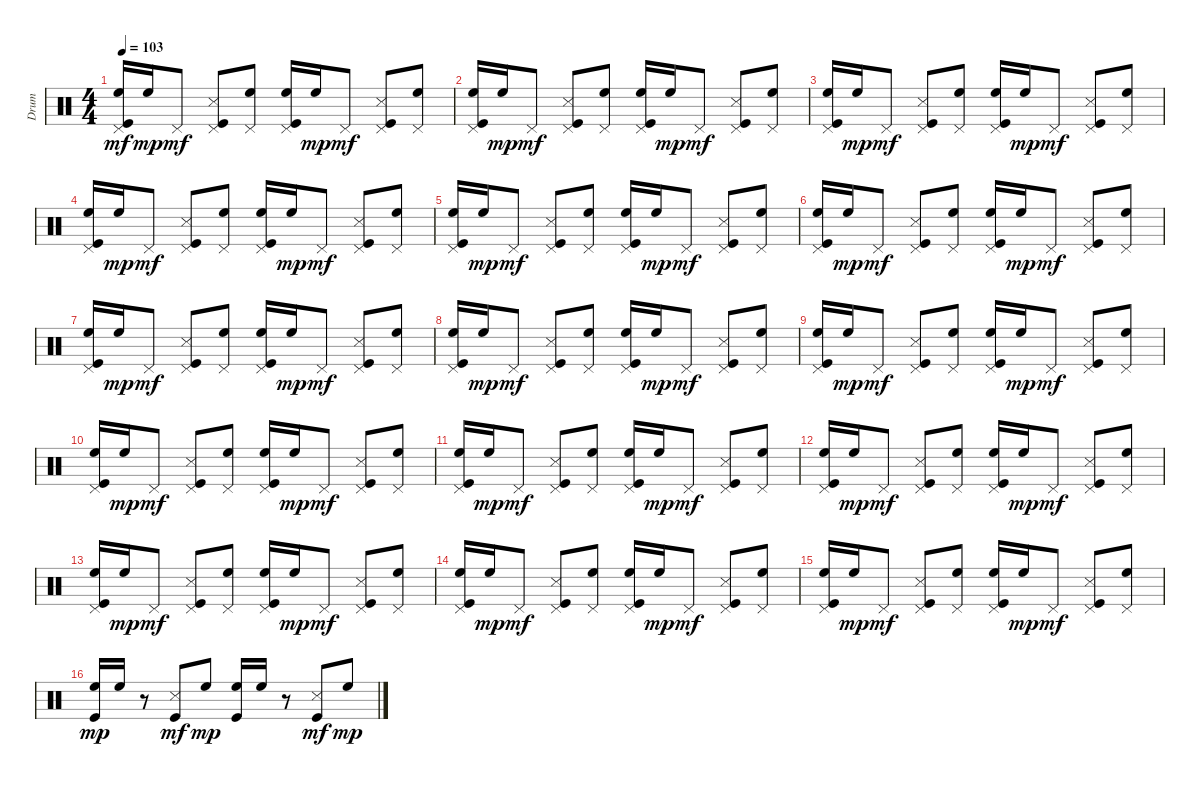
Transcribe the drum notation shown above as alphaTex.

\track ("Drum" "Drum") {instrument percussion}
\staff {score}
\articulation defaults
\ts (4 4)
\tempo 103
\clef neutral
\ks c
("Kick (hit)" "High Floor Tom (hit)" "Pedal Hi-Hat (hit)").16{dy mf} "High Floor Tom (hit)".16{dy mp} "Pedal Hi-Hat (hit)".8{dy mf} ("Kick (hit)" "Snare (side stick) 3" "Pedal Hi-Hat (hit)").8 ("High Floor Tom (hit)" "Pedal Hi-Hat (hit)").8 ("Kick (hit)" "High Floor Tom (hit)" "Pedal Hi-Hat (hit)").16 "High Floor Tom (hit)".16{dy mp} "Pedal Hi-Hat (hit)".8{dy mf} ("Kick (hit)" "Snare (side stick) 3" "Pedal Hi-Hat (hit)").8 ("High Floor Tom (hit)" "Pedal Hi-Hat (hit)").8 |
("Kick (hit)" "High Floor Tom (hit)" "Pedal Hi-Hat (hit)").16 "High Floor Tom (hit)".16{dy mp} "Pedal Hi-Hat (hit)".8{dy mf} ("Kick (hit)" "Snare (side stick) 3" "Pedal Hi-Hat (hit)").8 ("High Floor Tom (hit)" "Pedal Hi-Hat (hit)").8 ("Kick (hit)" "High Floor Tom (hit)" "Pedal Hi-Hat (hit)").16 "High Floor Tom (hit)".16{dy mp} "Pedal Hi-Hat (hit)".8{dy mf} ("Kick (hit)" "Snare (side stick) 3" "Pedal Hi-Hat (hit)").8 ("High Floor Tom (hit)" "Pedal Hi-Hat (hit)").8 |
("Kick (hit)" "High Floor Tom (hit)" "Pedal Hi-Hat (hit)").16 "High Floor Tom (hit)".16{dy mp} "Pedal Hi-Hat (hit)".8{dy mf} ("Kick (hit)" "Snare (side stick) 3" "Pedal Hi-Hat (hit)").8 ("High Floor Tom (hit)" "Pedal Hi-Hat (hit)").8 ("Kick (hit)" "High Floor Tom (hit)" "Pedal Hi-Hat (hit)").16 "High Floor Tom (hit)".16{dy mp} "Pedal Hi-Hat (hit)".8{dy mf} ("Kick (hit)" "Snare (side stick) 3" "Pedal Hi-Hat (hit)").8 ("High Floor Tom (hit)" "Pedal Hi-Hat (hit)").8 |
("Kick (hit)" "High Floor Tom (hit)" "Pedal Hi-Hat (hit)").16 "High Floor Tom (hit)".16{dy mp} "Pedal Hi-Hat (hit)".8{dy mf} ("Kick (hit)" "Snare (side stick) 3" "Pedal Hi-Hat (hit)").8 ("High Floor Tom (hit)" "Pedal Hi-Hat (hit)").8 ("Kick (hit)" "High Floor Tom (hit)" "Pedal Hi-Hat (hit)").16 "High Floor Tom (hit)".16{dy mp} "Pedal Hi-Hat (hit)".8{dy mf} ("Kick (hit)" "Snare (side stick) 3" "Pedal Hi-Hat (hit)").8 ("High Floor Tom (hit)" "Pedal Hi-Hat (hit)").8 |
("Kick (hit)" "High Floor Tom (hit)" "Pedal Hi-Hat (hit)").16 "High Floor Tom (hit)".16{dy mp} "Pedal Hi-Hat (hit)".8{dy mf} ("Kick (hit)" "Snare (side stick) 3" "Pedal Hi-Hat (hit)").8 ("High Floor Tom (hit)" "Pedal Hi-Hat (hit)").8 ("Kick (hit)" "High Floor Tom (hit)" "Pedal Hi-Hat (hit)").16 "High Floor Tom (hit)".16{dy mp} "Pedal Hi-Hat (hit)".8{dy mf} ("Kick (hit)" "Snare (side stick) 3" "Pedal Hi-Hat (hit)").8 ("High Floor Tom (hit)" "Pedal Hi-Hat (hit)").8 |
("Kick (hit)" "High Floor Tom (hit)" "Pedal Hi-Hat (hit)").16 "High Floor Tom (hit)".16{dy mp} "Pedal Hi-Hat (hit)".8{dy mf} ("Kick (hit)" "Snare (side stick) 3" "Pedal Hi-Hat (hit)").8 ("High Floor Tom (hit)" "Pedal Hi-Hat (hit)").8 ("Kick (hit)" "High Floor Tom (hit)" "Pedal Hi-Hat (hit)").16 "High Floor Tom (hit)".16{dy mp} "Pedal Hi-Hat (hit)".8{dy mf} ("Kick (hit)" "Snare (side stick) 3" "Pedal Hi-Hat (hit)").8 ("High Floor Tom (hit)" "Pedal Hi-Hat (hit)").8 |
("Kick (hit)" "High Floor Tom (hit)" "Pedal Hi-Hat (hit)").16 "High Floor Tom (hit)".16{dy mp} "Pedal Hi-Hat (hit)".8{dy mf} ("Kick (hit)" "Snare (side stick) 3" "Pedal Hi-Hat (hit)").8 ("High Floor Tom (hit)" "Pedal Hi-Hat (hit)").8 ("Kick (hit)" "High Floor Tom (hit)" "Pedal Hi-Hat (hit)").16 "High Floor Tom (hit)".16{dy mp} "Pedal Hi-Hat (hit)".8{dy mf} ("Kick (hit)" "Snare (side stick) 3" "Pedal Hi-Hat (hit)").8 ("High Floor Tom (hit)" "Pedal Hi-Hat (hit)").8 |
("Kick (hit)" "High Floor Tom (hit)" "Pedal Hi-Hat (hit)").16 "High Floor Tom (hit)".16{dy mp} "Pedal Hi-Hat (hit)".8{dy mf} ("Kick (hit)" "Snare (side stick) 3" "Pedal Hi-Hat (hit)").8 ("High Floor Tom (hit)" "Pedal Hi-Hat (hit)").8 ("Kick (hit)" "High Floor Tom (hit)" "Pedal Hi-Hat (hit)").16 "High Floor Tom (hit)".16{dy mp} "Pedal Hi-Hat (hit)".8{dy mf} ("Kick (hit)" "Snare (side stick) 3" "Pedal Hi-Hat (hit)").8 ("High Floor Tom (hit)" "Pedal Hi-Hat (hit)").8 |
("Kick (hit)" "High Floor Tom (hit)" "Pedal Hi-Hat (hit)").16 "High Floor Tom (hit)".16{dy mp} "Pedal Hi-Hat (hit)".8{dy mf} ("Kick (hit)" "Snare (side stick) 3" "Pedal Hi-Hat (hit)").8 ("High Floor Tom (hit)" "Pedal Hi-Hat (hit)").8 ("Kick (hit)" "High Floor Tom (hit)" "Pedal Hi-Hat (hit)").16 "High Floor Tom (hit)".16{dy mp} "Pedal Hi-Hat (hit)".8{dy mf} ("Kick (hit)" "Snare (side stick) 3" "Pedal Hi-Hat (hit)").8 ("High Floor Tom (hit)" "Pedal Hi-Hat (hit)").8 |
("Kick (hit)" "High Floor Tom (hit)" "Pedal Hi-Hat (hit)").16 "High Floor Tom (hit)".16{dy mp} "Pedal Hi-Hat (hit)".8{dy mf} ("Kick (hit)" "Snare (side stick) 3" "Pedal Hi-Hat (hit)").8 ("High Floor Tom (hit)" "Pedal Hi-Hat (hit)").8 ("Kick (hit)" "High Floor Tom (hit)" "Pedal Hi-Hat (hit)").16 "High Floor Tom (hit)".16{dy mp} "Pedal Hi-Hat (hit)".8{dy mf} ("Kick (hit)" "Snare (side stick) 3" "Pedal Hi-Hat (hit)").8 ("High Floor Tom (hit)" "Pedal Hi-Hat (hit)").8 |
("Kick (hit)" "High Floor Tom (hit)" "Pedal Hi-Hat (hit)").16 "High Floor Tom (hit)".16{dy mp} "Pedal Hi-Hat (hit)".8{dy mf} ("Kick (hit)" "Snare (side stick) 3" "Pedal Hi-Hat (hit)").8 ("High Floor Tom (hit)" "Pedal Hi-Hat (hit)").8 ("Kick (hit)" "High Floor Tom (hit)" "Pedal Hi-Hat (hit)").16 "High Floor Tom (hit)".16{dy mp} "Pedal Hi-Hat (hit)".8{dy mf} ("Kick (hit)" "Snare (side stick) 3" "Pedal Hi-Hat (hit)").8 ("High Floor Tom (hit)" "Pedal Hi-Hat (hit)").8 |
("Kick (hit)" "High Floor Tom (hit)" "Pedal Hi-Hat (hit)").16 "High Floor Tom (hit)".16{dy mp} "Pedal Hi-Hat (hit)".8{dy mf} ("Kick (hit)" "Snare (side stick) 3" "Pedal Hi-Hat (hit)").8 ("High Floor Tom (hit)" "Pedal Hi-Hat (hit)").8 ("Kick (hit)" "High Floor Tom (hit)" "Pedal Hi-Hat (hit)").16 "High Floor Tom (hit)".16{dy mp} "Pedal Hi-Hat (hit)".8{dy mf} ("Kick (hit)" "Snare (side stick) 3" "Pedal Hi-Hat (hit)").8 ("High Floor Tom (hit)" "Pedal Hi-Hat (hit)").8 |
("Kick (hit)" "High Floor Tom (hit)" "Pedal Hi-Hat (hit)").16 "High Floor Tom (hit)".16{dy mp} "Pedal Hi-Hat (hit)".8{dy mf} ("Kick (hit)" "Snare (side stick) 3" "Pedal Hi-Hat (hit)").8 ("High Floor Tom (hit)" "Pedal Hi-Hat (hit)").8 ("Kick (hit)" "High Floor Tom (hit)" "Pedal Hi-Hat (hit)").16 "High Floor Tom (hit)".16{dy mp} "Pedal Hi-Hat (hit)".8{dy mf} ("Kick (hit)" "Snare (side stick) 3" "Pedal Hi-Hat (hit)").8 ("High Floor Tom (hit)" "Pedal Hi-Hat (hit)").8 |
("Kick (hit)" "High Floor Tom (hit)" "Pedal Hi-Hat (hit)").16 "High Floor Tom (hit)".16{dy mp} "Pedal Hi-Hat (hit)".8{dy mf} ("Kick (hit)" "Snare (side stick) 3" "Pedal Hi-Hat (hit)").8 ("High Floor Tom (hit)" "Pedal Hi-Hat (hit)").8 ("Kick (hit)" "High Floor Tom (hit)" "Pedal Hi-Hat (hit)").16 "High Floor Tom (hit)".16{dy mp} "Pedal Hi-Hat (hit)".8{dy mf} ("Kick (hit)" "Snare (side stick) 3" "Pedal Hi-Hat (hit)").8 ("High Floor Tom (hit)" "Pedal Hi-Hat (hit)").8 |
("Kick (hit)" "High Floor Tom (hit)" "Pedal Hi-Hat (hit)").16 "High Floor Tom (hit)".16{dy mp} "Pedal Hi-Hat (hit)".8{dy mf} ("Kick (hit)" "Snare (side stick) 3" "Pedal Hi-Hat (hit)").8 ("High Floor Tom (hit)" "Pedal Hi-Hat (hit)").8 ("Kick (hit)" "High Floor Tom (hit)" "Pedal Hi-Hat (hit)").16 "High Floor Tom (hit)".16{dy mp} "Pedal Hi-Hat (hit)".8{dy mf} ("Kick (hit)" "Snare (side stick) 3" "Pedal Hi-Hat (hit)").8 ("High Floor Tom (hit)" "Pedal Hi-Hat (hit)").8 |
("Kick (hit)" "High Floor Tom (hit)").16{dy mp volume 11} "High Floor Tom (hit)".16 r.8 ("Kick (hit)" "Snare (side stick) 3").8{dy mf} "High Floor Tom (hit)".8{dy mp} ("Kick (hit)" "High Floor Tom (hit)").16 "High Floor Tom (hit)".16 r.8 ("Kick (hit)" "Snare (side stick) 3").8{dy mf} "High Floor Tom (hit)".8{dy mp}
